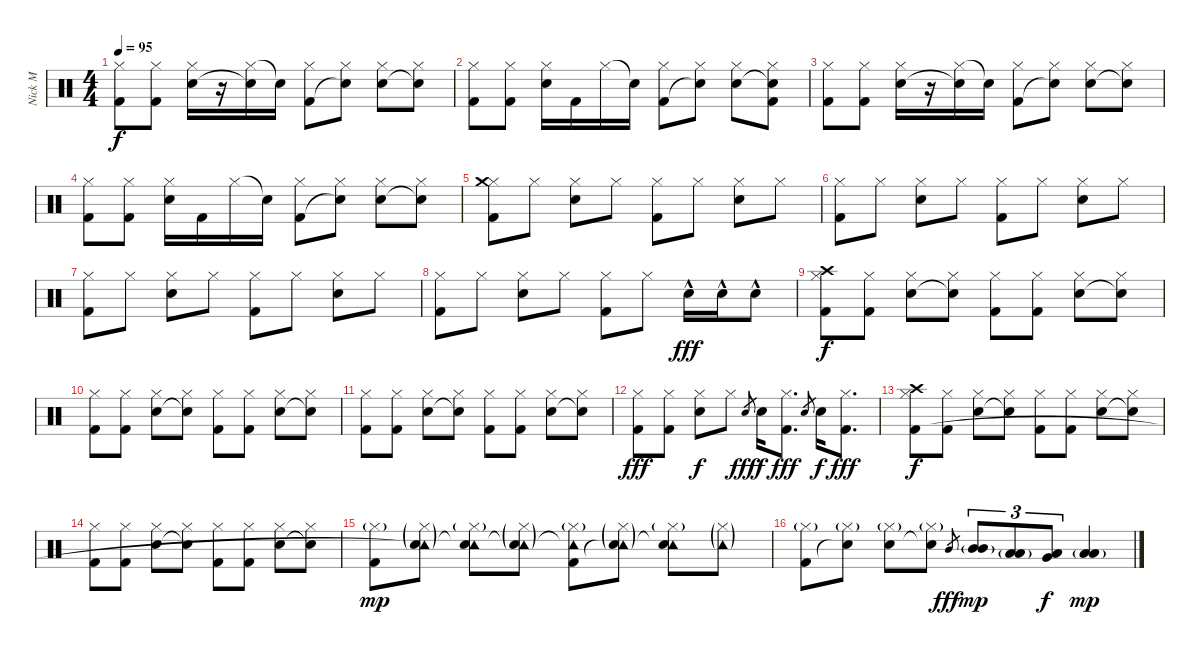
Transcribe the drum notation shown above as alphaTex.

\track ("Nick M" "Nick M") {instrument percussion}
\staff {score}
\articulation defaults
\ts (4 4)
\tempo 95
\clef neutral
\ks c
("Hi-Hat (closed)" "Kick (hit) 2").8{dy f} ("Hi-Hat (closed)" "Kick (hit) 2").8 ("Hi-Hat (closed)" "Snare (hit) 2").16 r.16 ("Hi-Hat (closed)" "Snare (hit)"{t}).16 "Snare (hit)"{t}.16 ("Hi-Hat (closed)" "Kick (hit) 2").8 ("Hi-Hat (closed)" "Snare (hit)"{t}).8 ("Hi-Hat (closed)" "Snare (hit) 2").8 ("Hi-Hat (closed)" "Snare (hit)"{t}).8 |
("Hi-Hat (closed)" "Kick (hit) 2").8 ("Hi-Hat (closed)" "Kick (hit) 2").8 ("Hi-Hat (closed)" "Snare (hit) 2").16 "Kick (hit) 2".16 "Hi-Hat (closed)".16 "Snare (hit)"{t}.16 ("Hi-Hat (closed)" "Kick (hit) 2").8 ("Hi-Hat (closed)" "Snare (hit)"{t}).8 ("Hi-Hat (closed)" "Snare (hit) 2").8 ("Hi-Hat (closed)" "Snare (hit)"{t} "Kick (hit) 2").8 |
("Hi-Hat (closed)" "Kick (hit) 2").8 ("Hi-Hat (closed)" "Kick (hit) 2").8 ("Hi-Hat (closed)" "Snare (hit) 2").16 r.16 ("Hi-Hat (closed)" "Snare (hit)"{t}).16 "Snare (hit)"{t}.16 ("Hi-Hat (closed)" "Kick (hit) 2").8 ("Hi-Hat (closed)" "Snare (hit)"{t}).8 ("Hi-Hat (closed)" "Snare (hit) 2").8 ("Hi-Hat (closed)" "Snare (hit)"{t}).8 |
("Hi-Hat (closed)" "Kick (hit) 2").8 ("Hi-Hat (closed)" "Kick (hit) 2").8 ("Hi-Hat (closed)" "Snare (hit) 2").16 "Kick (hit) 2".16 "Hi-Hat (closed)".16 "Snare (hit)"{t}.16 ("Hi-Hat (closed)" "Kick (hit) 2").8 ("Hi-Hat (closed)" "Snare (hit)"{t}).8 ("Hi-Hat (closed)" "Snare (hit) 2").8 ("Hi-Hat (closed)" "Snare (hit)"{t}).8 |
("Hi-Hat (closed)" "Crash medium (hit)" "Kick (hit) 2").8 "Hi-Hat (closed)".8 ("Hi-Hat (closed)" "Snare (hit) 2").8 "Hi-Hat (closed)".8 ("Hi-Hat (closed)" "Kick (hit) 2").8 "Hi-Hat (closed)".8 ("Hi-Hat (closed)" "Snare (hit) 2").8 "Hi-Hat (closed)".8 |
("Hi-Hat (closed)" "Kick (hit) 2").8 "Hi-Hat (closed)".8 ("Hi-Hat (closed)" "Snare (hit) 2").8 "Hi-Hat (closed)".8 ("Hi-Hat (closed)" "Kick (hit) 2").8 "Hi-Hat (closed)".8 ("Hi-Hat (closed)" "Snare (hit) 2").8 "Hi-Hat (closed)".8 |
("Hi-Hat (closed)" "Kick (hit) 2").8 "Hi-Hat (closed)".8 ("Hi-Hat (closed)" "Snare (hit) 2").8 "Hi-Hat (closed)".8 ("Hi-Hat (closed)" "Kick (hit) 2").8 "Hi-Hat (closed)".8 ("Hi-Hat (closed)" "Snare (hit) 2").8 "Hi-Hat (closed)".8 |
("Hi-Hat (closed)" "Kick (hit) 2").8 "Hi-Hat (closed)".8 ("Hi-Hat (closed)" "Snare (hit) 2").8 "Hi-Hat (closed)".8 ("Hi-Hat (closed)" "Kick (hit) 2").8 "Hi-Hat (closed)".8 "Snare (hit) 2"{hac}.16{dy fff} "Snare (hit) 2"{hac}.16 "Snare (hit) 2"{hac}.8 |
("Hi-Hat (closed)" "Crash high (hit)" "Kick (hit) 2").8{dy f} ("Hi-Hat (closed)" "Kick (hit) 2").8 ("Hi-Hat (closed)" "Snare (hit) 2").8 ("Hi-Hat (closed)" "Snare (hit)"{t}).8 ("Hi-Hat (closed)" "Kick (hit) 2").8 ("Hi-Hat (closed)" "Kick (hit) 2").8 ("Hi-Hat (closed)" "Snare (hit) 2").8 ("Hi-Hat (closed)" "Snare (hit)"{t}).8 |
("Hi-Hat (closed)" "Kick (hit) 2").8 ("Hi-Hat (closed)" "Kick (hit) 2").8 ("Hi-Hat (closed)" "Snare (hit) 2").8 ("Hi-Hat (closed)" "Snare (hit)"{t}).8 ("Hi-Hat (closed)" "Kick (hit) 2").8 ("Hi-Hat (closed)" "Kick (hit) 2").8 ("Hi-Hat (closed)" "Snare (hit) 2").8 ("Hi-Hat (closed)" "Snare (hit)"{t}).8 |
("Hi-Hat (closed)" "Kick (hit) 2").8 ("Hi-Hat (closed)" "Kick (hit) 2").8 ("Hi-Hat (closed)" "Snare (hit) 2").8 ("Hi-Hat (closed)" "Snare (hit)"{t}).8 ("Hi-Hat (closed)" "Kick (hit) 2").8 ("Hi-Hat (closed)" "Kick (hit) 2").8 ("Hi-Hat (closed)" "Snare (hit) 2").8 ("Hi-Hat (closed)" "Snare (hit)"{t}).8 |
("Hi-Hat (closed)" "Kick (hit) 2").8{dy fff} ("Hi-Hat (closed)" "Kick (hit) 2").8 ("Hi-Hat (closed)" "Snare (hit) 2").8{dy f} "Hi-Hat (closed)".8 "Snare (hit) 2".8{gr dy fff} "Snare (hit) 2".16{dy f} ("Hi-Hat (closed)" "Kick (hit) 2").8{d dy fff} "Snare (hit) 2".8{gr} "Snare (hit) 2".16{dy f} ("Hi-Hat (closed)" "Kick (hit) 2").8{d dy fff} |
("Hi-Hat (closed)" "Crash high (hit)" "Kick (hit) 2").8{dy f} ("Hi-Hat (closed)" "Kick (hit) 2").8 ("Hi-Hat (closed)" "Snare (hit) 2").8 ("Hi-Hat (closed)" "Snare (hit)"{t}).8 ("Hi-Hat (closed)" "Kick (hit) 2").8 ("Hi-Hat (closed)" "Kick (hit) 2").8 ("Hi-Hat (closed)" "Snare (hit) 2").8 ("Hi-Hat (closed)" "Snare (hit)"{t}).8 |
("Hi-Hat (closed)" "Kick (hit) 2").8 ("Hi-Hat (closed)" "Kick (hit) 2").8 ("Hi-Hat (closed)" "Snare (hit) 2").8 ("Hi-Hat (closed)" "Snare (hit)"{t}).8 ("Hi-Hat (closed)" "Kick (hit) 2").8 ("Hi-Hat (closed)" "Kick (hit) 2").8 ("Hi-Hat (closed)" "Snare (hit) 2").8 ("Hi-Hat (closed)" "Snare (hit)"{t}).8 |
("Hi-Hat (closed)"{g} "Kick (hit) 2").8{dy mp} ("Hi-Hat (closed)"{g} "Tambourine (hit)"{g} "Snare (hit)"{t}).8 ("Hi-Hat (closed)"{g} "Tambourine (hit)"{t} "Snare (hit) 2").8 ("Hi-Hat (closed)"{g} "Tambourine (hit)"{g} "Snare (hit)"{t}).8 ("Hi-Hat (closed)"{g} "Tambourine (hit)"{t} "Kick (hit) 2").8 ("Hi-Hat (closed)"{g} "Tambourine (hit)"{g} "Snare (hit)"{t}).8 ("Hi-Hat (closed)"{g} "Tambourine (hit)"{t} "Snare (hit) 2").8 ("Hi-Hat (closed)"{g} "Tambourine (hit)"{g}).8 |
("Hi-Hat (closed)"{g} "Kick (hit) 2").8 ("Hi-Hat (closed)"{g} "Snare (hit)"{t}).8 ("Hi-Hat (closed)"{g} "Snare (hit) 2").8 ("Hi-Hat (closed)"{g} "Snare (hit)"{t}).8 "Mid Tom (hit)".8{gr dy fff} ("Mid Tom (hit)" "Mid Tom (hit)"{g}).8{tu (3 2) dy mp} ("Low Tom (hit)" "Low Tom (hit)"{g}).8{tu (3 2)} ("Very Low Tom (hit)" "Low Tom (hit)").8{tu (3 2) dy f} ("Low Floor Tom (hit)" "Low Floor Tom (hit)"{g}).4{dy mp}
